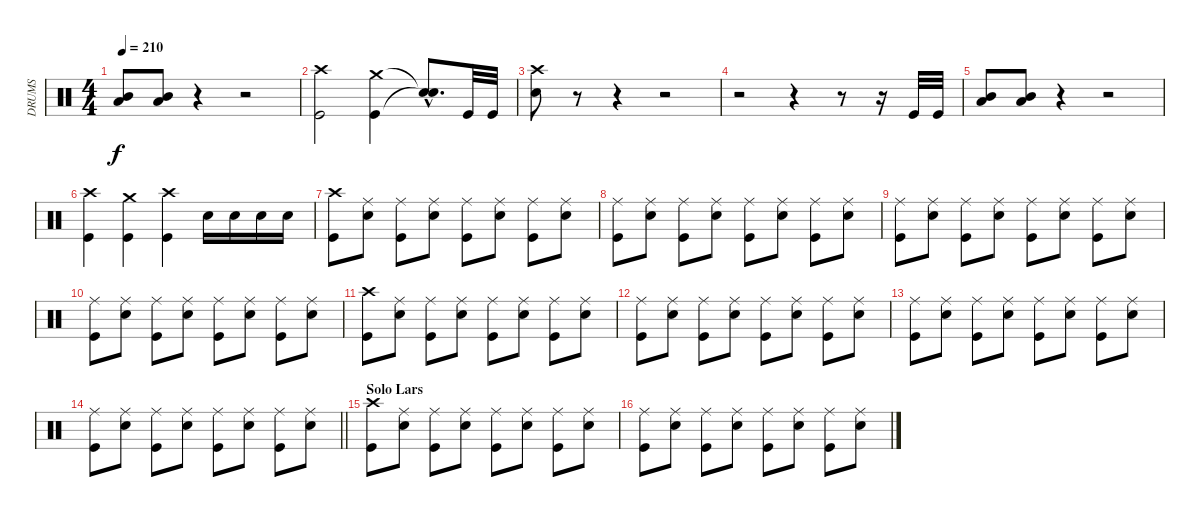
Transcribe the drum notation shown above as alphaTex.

\track ("DRUMS" "DRUMS") {instrument percussion}
\staff {score}
\articulation defaults
\ts (4 4)
\tempo 210
\clef neutral
\ks c
("Mid Tom (hit)" "Low Floor Tom (hit)").8{dy f} ("Mid Tom (hit)" "Low Floor Tom (hit)").8 r.4 r.2 |
("Crash high (hit)" "Kick (hit)").2 ("Crash medium (hit)" "Kick (hit)").4 ("Snare (hit)"{hac t} "Snare (hit)"{hac t}).8{d} "Kick (hit)".32 "Kick (hit)".32 |
("Crash high (hit)" "Snare (hit) 2").8 r.8 r.4 r.2 |
r.2 r.4 r.8 r.16 "Kick (hit)".32 "Kick (hit)".32 |
("Mid Tom (hit)" "Low Floor Tom (hit)").8 ("Mid Tom (hit)" "Low Floor Tom (hit)").8 r.4 r.2 |
("Crash high (hit)" "Kick (hit)").4 ("Crash medium (hit)" "Kick (hit)").4 ("Crash high (hit)" "Kick (hit)").4 "Snare (hit) 2".16 "Snare (hit) 2".16 "Snare (hit) 2".16 "Snare (hit) 2".16 |
("Crash high (hit)" "Kick (hit)").8 ("Ride (middle)" "Snare (hit) 2").8 ("Ride (middle)" "Kick (hit)").8 ("Ride (middle)" "Snare (hit) 2").8 ("Ride (middle)" "Kick (hit)").8 ("Ride (middle)" "Snare (hit) 2").8 ("Ride (middle)" "Kick (hit)").8 ("Ride (middle)" "Snare (hit) 2").8 |
("Ride (middle)" "Kick (hit)").8 ("Ride (middle)" "Snare (hit) 2").8 ("Ride (middle)" "Kick (hit)").8 ("Ride (middle)" "Snare (hit) 2").8 ("Ride (middle)" "Kick (hit)").8 ("Ride (middle)" "Snare (hit) 2").8 ("Ride (middle)" "Kick (hit)").8 ("Ride (middle)" "Snare (hit) 2").8 |
("Ride (middle)" "Kick (hit)").8 ("Ride (middle)" "Snare (hit) 2").8 ("Ride (middle)" "Kick (hit)").8 ("Ride (middle)" "Snare (hit) 2").8 ("Ride (middle)" "Kick (hit)").8 ("Ride (middle)" "Snare (hit) 2").8 ("Ride (middle)" "Kick (hit)").8 ("Ride (middle)" "Snare (hit) 2").8 |
("Ride (middle)" "Kick (hit)").8 ("Ride (middle)" "Snare (hit) 2").8 ("Ride (middle)" "Kick (hit)").8 ("Ride (middle)" "Snare (hit) 2").8 ("Ride (middle)" "Kick (hit)").8 ("Ride (middle)" "Snare (hit) 2").8 ("Ride (middle)" "Kick (hit)").8 ("Ride (middle)" "Snare (hit) 2").8 |
("Crash high (hit)" "Kick (hit)").8 ("Ride (middle)" "Snare (hit) 2").8 ("Ride (middle)" "Kick (hit)").8 ("Ride (middle)" "Snare (hit) 2").8 ("Ride (middle)" "Kick (hit)").8 ("Ride (middle)" "Snare (hit) 2").8 ("Ride (middle)" "Kick (hit)").8 ("Ride (middle)" "Snare (hit) 2").8 |
("Ride (middle)" "Kick (hit)").8 ("Ride (middle)" "Snare (hit) 2").8 ("Ride (middle)" "Kick (hit)").8 ("Ride (middle)" "Snare (hit) 2").8 ("Ride (middle)" "Kick (hit)").8 ("Ride (middle)" "Snare (hit) 2").8 ("Ride (middle)" "Kick (hit)").8 ("Ride (middle)" "Snare (hit) 2").8 |
("Ride (middle)" "Kick (hit)").8 ("Ride (middle)" "Snare (hit) 2").8 ("Ride (middle)" "Kick (hit)").8 ("Ride (middle)" "Snare (hit) 2").8 ("Ride (middle)" "Kick (hit)").8 ("Ride (middle)" "Snare (hit) 2").8 ("Ride (middle)" "Kick (hit)").8 ("Ride (middle)" "Snare (hit) 2").8 |
\barLineRight lightlight
("Ride (middle)" "Kick (hit)").8 ("Ride (middle)" "Snare (hit) 2").8 ("Ride (middle)" "Kick (hit)").8 ("Ride (middle)" "Snare (hit) 2").8 ("Ride (middle)" "Kick (hit)").8 ("Ride (middle)" "Snare (hit) 2").8 ("Ride (middle)" "Kick (hit)").8 ("Ride (middle)" "Snare (hit) 2").8 |
\section ("" "Solo Lars")
("Crash high (hit)" "Kick (hit)").8 ("Ride (middle)" "Snare (hit) 2").8 ("Ride (middle)" "Kick (hit)").8 ("Ride (middle)" "Snare (hit) 2").8 ("Ride (middle)" "Kick (hit)").8 ("Ride (middle)" "Snare (hit) 2").8 ("Ride (middle)" "Kick (hit)").8 ("Ride (middle)" "Snare (hit) 2").8 |
("Ride (middle)" "Kick (hit)").8 ("Ride (middle)" "Snare (hit) 2").8 ("Ride (middle)" "Kick (hit)").8 ("Ride (middle)" "Snare (hit) 2").8 ("Ride (middle)" "Kick (hit)").8 ("Ride (middle)" "Snare (hit) 2").8 ("Ride (middle)" "Kick (hit)").8 ("Ride (middle)" "Snare (hit) 2").8
